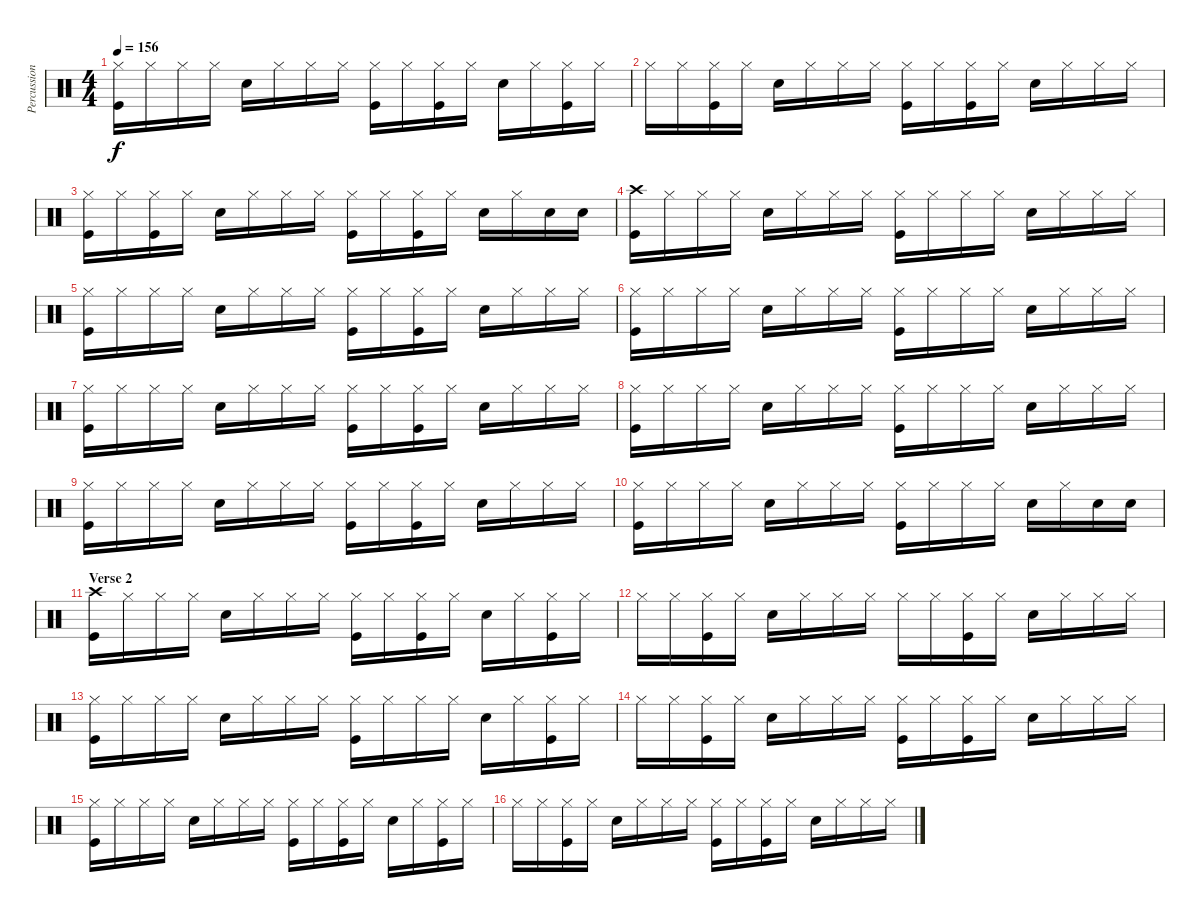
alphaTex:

\track ("Percussion" "Percussion") {instrument percussion}
\staff {score}
\articulation defaults
\ts (4 4)
\tempo 156
\clef neutral
\ks c
("Hi-Hat (closed)" "Kick (hit)").16{dy f} "Hi-Hat (closed)".16 "Hi-Hat (closed)".16 "Hi-Hat (closed)".16 "Snare (hit) 2".16 "Hi-Hat (closed)".16 "Hi-Hat (closed)".16 "Hi-Hat (closed)".16 ("Hi-Hat (closed)" "Kick (hit)").16 "Hi-Hat (closed)".16 ("Hi-Hat (closed)" "Kick (hit)").16 "Hi-Hat (closed)".16 "Snare (hit) 2".16 "Hi-Hat (closed)".16 ("Hi-Hat (closed)" "Kick (hit)").16 "Hi-Hat (closed)".16 |
"Hi-Hat (closed)".16 "Hi-Hat (closed)".16 ("Hi-Hat (closed)" "Kick (hit)").16 "Hi-Hat (closed)".16 "Snare (hit) 2".16 "Hi-Hat (closed)".16 "Hi-Hat (closed)".16 "Hi-Hat (closed)".16 ("Hi-Hat (closed)" "Kick (hit)").16 "Hi-Hat (closed)".16 ("Hi-Hat (closed)" "Kick (hit)").16 "Hi-Hat (closed)".16 "Snare (hit) 2".16 "Hi-Hat (closed)".16 "Hi-Hat (closed)".16 "Hi-Hat (closed)".16 |
("Hi-Hat (closed)" "Kick (hit)").16 "Hi-Hat (closed)".16 ("Hi-Hat (closed)" "Kick (hit)").16 "Hi-Hat (closed)".16 "Snare (hit) 2".16 "Hi-Hat (closed)".16 "Hi-Hat (closed)".16 "Hi-Hat (closed)".16 ("Hi-Hat (closed)" "Kick (hit)").16 "Hi-Hat (closed)".16 ("Hi-Hat (closed)" "Kick (hit)").16 "Hi-Hat (closed)".16 "Snare (hit) 2".16 "Hi-Hat (closed)".16 "Snare (hit) 2".16 "Snare (hit) 2".16 |
("Crash high (hit)" "Kick (hit)").16 "Hi-Hat (closed)".16 "Hi-Hat (closed)".16 "Hi-Hat (closed)".16 "Snare (hit) 2".16 "Hi-Hat (closed)".16 "Hi-Hat (closed)".16 "Hi-Hat (closed)".16 ("Hi-Hat (closed)" "Kick (hit)").16 "Hi-Hat (closed)".16 "Hi-Hat (closed)".16 "Hi-Hat (closed)".16 "Snare (hit) 2".16 "Hi-Hat (closed)".16 "Hi-Hat (closed)".16 "Hi-Hat (closed)".16 |
("Hi-Hat (closed)" "Kick (hit)").16 "Hi-Hat (closed)".16 "Hi-Hat (closed)".16 "Hi-Hat (closed)".16 "Snare (hit) 2".16 "Hi-Hat (closed)".16 "Hi-Hat (closed)".16 "Hi-Hat (closed)".16 ("Hi-Hat (closed)" "Kick (hit)").16 "Hi-Hat (closed)".16 ("Hi-Hat (closed)" "Kick (hit)").16 "Hi-Hat (closed)".16 "Snare (hit) 2".16 "Hi-Hat (closed)".16 "Hi-Hat (closed)".16 "Hi-Hat (closed)".16 |
("Hi-Hat (closed)" "Kick (hit)").16 "Hi-Hat (closed)".16 "Hi-Hat (closed)".16 "Hi-Hat (closed)".16 "Snare (hit) 2".16 "Hi-Hat (closed)".16 "Hi-Hat (closed)".16 "Hi-Hat (closed)".16 ("Hi-Hat (closed)" "Kick (hit)").16 "Hi-Hat (closed)".16 "Hi-Hat (closed)".16 "Hi-Hat (closed)".16 "Snare (hit) 2".16 "Hi-Hat (closed)".16 "Hi-Hat (closed)".16 "Hi-Hat (closed)".16 |
("Hi-Hat (closed)" "Kick (hit)").16 "Hi-Hat (closed)".16 "Hi-Hat (closed)".16 "Hi-Hat (closed)".16 "Snare (hit) 2".16 "Hi-Hat (closed)".16 "Hi-Hat (closed)".16 "Hi-Hat (closed)".16 ("Hi-Hat (closed)" "Kick (hit)").16 "Hi-Hat (closed)".16 ("Hi-Hat (closed)" "Kick (hit)").16 "Hi-Hat (closed)".16 "Snare (hit) 2".16 "Hi-Hat (closed)".16 "Hi-Hat (closed)".16 "Hi-Hat (closed)".16 |
("Hi-Hat (closed)" "Kick (hit)").16 "Hi-Hat (closed)".16 "Hi-Hat (closed)".16 "Hi-Hat (closed)".16 "Snare (hit) 2".16 "Hi-Hat (closed)".16 "Hi-Hat (closed)".16 "Hi-Hat (closed)".16 ("Hi-Hat (closed)" "Kick (hit)").16 "Hi-Hat (closed)".16 "Hi-Hat (closed)".16 "Hi-Hat (closed)".16 "Snare (hit) 2".16 "Hi-Hat (closed)".16 "Hi-Hat (closed)".16 "Hi-Hat (closed)".16 |
("Hi-Hat (closed)" "Kick (hit)").16 "Hi-Hat (closed)".16 "Hi-Hat (closed)".16 "Hi-Hat (closed)".16 "Snare (hit) 2".16 "Hi-Hat (closed)".16 "Hi-Hat (closed)".16 "Hi-Hat (closed)".16 ("Hi-Hat (closed)" "Kick (hit)").16 "Hi-Hat (closed)".16 ("Hi-Hat (closed)" "Kick (hit)").16 "Hi-Hat (closed)".16 "Snare (hit) 2".16 "Hi-Hat (closed)".16 "Hi-Hat (closed)".16 "Hi-Hat (closed)".16 |
("Hi-Hat (closed)" "Kick (hit)").16 "Hi-Hat (closed)".16 "Hi-Hat (closed)".16 "Hi-Hat (closed)".16 "Snare (hit) 2".16 "Hi-Hat (closed)".16 "Hi-Hat (closed)".16 "Hi-Hat (closed)".16 ("Hi-Hat (closed)" "Kick (hit)").16 "Hi-Hat (closed)".16 "Hi-Hat (closed)".16 "Hi-Hat (closed)".16 "Snare (hit) 2".16 "Hi-Hat (closed)".16 "Snare (hit) 2".16 "Snare (hit) 2".16 |
\section ("" "Verse 2")
("Crash high (hit)" "Kick (hit)").16 "Hi-Hat (closed)".16 "Hi-Hat (closed)".16 "Hi-Hat (closed)".16 "Snare (hit) 2".16 "Hi-Hat (closed)".16 "Hi-Hat (closed)".16 "Hi-Hat (closed)".16 ("Hi-Hat (closed)" "Kick (hit)").16 "Hi-Hat (closed)".16 ("Hi-Hat (closed)" "Kick (hit)").16 "Hi-Hat (closed)".16 "Snare (hit) 2".16 "Hi-Hat (closed)".16 ("Hi-Hat (closed)" "Kick (hit)").16 "Hi-Hat (closed)".16 |
"Hi-Hat (closed)".16 "Hi-Hat (closed)".16 ("Hi-Hat (closed)" "Kick (hit)").16 "Hi-Hat (closed)".16 "Snare (hit) 2".16 "Hi-Hat (closed)".16 "Hi-Hat (closed)".16 "Hi-Hat (closed)".16 "Hi-Hat (closed)".16 "Hi-Hat (closed)".16 ("Hi-Hat (closed)" "Kick (hit)").16 "Hi-Hat (closed)".16 "Snare (hit) 2".16 "Hi-Hat (closed)".16 "Hi-Hat (closed)".16 "Hi-Hat (closed)".16 |
("Hi-Hat (closed)" "Kick (hit)").16 "Hi-Hat (closed)".16 "Hi-Hat (closed)".16 "Hi-Hat (closed)".16 "Snare (hit) 2".16 "Hi-Hat (closed)".16 "Hi-Hat (closed)".16 "Hi-Hat (closed)".16 ("Hi-Hat (closed)" "Kick (hit)").16 "Hi-Hat (closed)".16 "Hi-Hat (closed)".16 "Hi-Hat (closed)".16 "Snare (hit) 2".16 "Hi-Hat (closed)".16 ("Hi-Hat (closed)" "Kick (hit)").16 "Hi-Hat (closed)".16 |
"Hi-Hat (closed)".16 "Hi-Hat (closed)".16 ("Hi-Hat (closed)" "Kick (hit)").16 "Hi-Hat (closed)".16 "Snare (hit) 2".16 "Hi-Hat (closed)".16 "Hi-Hat (closed)".16 "Hi-Hat (closed)".16 ("Hi-Hat (closed)" "Kick (hit)").16 "Hi-Hat (closed)".16 ("Hi-Hat (closed)" "Kick (hit)").16 "Hi-Hat (closed)".16 "Snare (hit) 2".16 "Hi-Hat (closed)".16 "Hi-Hat (closed)".16 "Hi-Hat (closed)".16 |
("Hi-Hat (closed)" "Kick (hit)").16 "Hi-Hat (closed)".16 "Hi-Hat (closed)".16 "Hi-Hat (closed)".16 "Snare (hit) 2".16 "Hi-Hat (closed)".16 "Hi-Hat (closed)".16 "Hi-Hat (closed)".16 ("Hi-Hat (closed)" "Kick (hit)").16 "Hi-Hat (closed)".16 ("Hi-Hat (closed)" "Kick (hit)").16 "Hi-Hat (closed)".16 "Snare (hit) 2".16 "Hi-Hat (closed)".16 ("Hi-Hat (closed)" "Kick (hit)").16 "Hi-Hat (closed)".16 |
"Hi-Hat (closed)".16 "Hi-Hat (closed)".16 ("Hi-Hat (closed)" "Kick (hit)").16 "Hi-Hat (closed)".16 "Snare (hit) 2".16 "Hi-Hat (closed)".16 "Hi-Hat (closed)".16 "Hi-Hat (closed)".16 ("Hi-Hat (closed)" "Kick (hit)").16 "Hi-Hat (closed)".16 ("Hi-Hat (closed)" "Kick (hit)").16 "Hi-Hat (closed)".16 "Snare (hit) 2".16 "Hi-Hat (closed)".16 "Hi-Hat (closed)".16 "Hi-Hat (closed)".16
